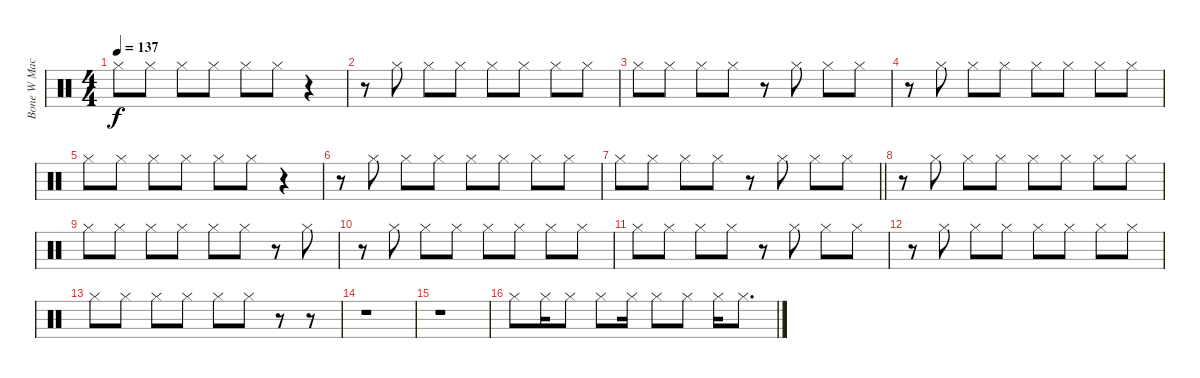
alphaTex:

\track ("Bone W Machine Cimbals" "Bone W Mac") {instrument percussion}
\staff {score}
\articulation defaults
\ts (4 4)
\tempo 137
\clef neutral
\ks c "Hi-Hat (closed)".8{dy f} "Hi-Hat (closed)".8 "Hi-Hat (closed)".8 "Hi-Hat (closed)".8 "Hi-Hat (closed)".8 "Hi-Hat (closed)".8
r.4 |
r.8 "Hi-Hat (closed)".8 "Hi-Hat (closed)".8 "Hi-Hat (closed)".8 "Hi-Hat (closed)".8 "Hi-Hat (closed)".8 "Hi-Hat (closed)".8 "Hi-Hat (closed)".8 |
"Hi-Hat (closed)".8 "Hi-Hat (closed)".8 "Hi-Hat (closed)".8 "Hi-Hat (closed)".8 r.8 "Hi-Hat (closed)".8 "Hi-Hat (closed)".8 "Hi-Hat (closed)".8 |
r.8 "Hi-Hat (closed)".8 "Hi-Hat (closed)".8 "Hi-Hat (closed)".8 "Hi-Hat (closed)".8 "Hi-Hat (closed)".8 "Hi-Hat (closed)".8 "Hi-Hat (closed)".8 |
"Hi-Hat (closed)".8 "Hi-Hat (closed)".8 "Hi-Hat (closed)".8 "Hi-Hat (closed)".8 "Hi-Hat (closed)".8 "Hi-Hat (closed)".8 r.4 |
r.8 "Hi-Hat (closed)".8 "Hi-Hat (closed)".8 "Hi-Hat (closed)".8 "Hi-Hat (closed)".8 "Hi-Hat (closed)".8 "Hi-Hat (closed)".8 "Hi-Hat (closed)".8 |
\barLineRight lightlight "Hi-Hat (closed)".8 "Hi-Hat (closed)".8 "Hi-Hat (closed)".8 "Hi-Hat (closed)".8
r.8 "Hi-Hat (closed)".8 "Hi-Hat (closed)".8 "Hi-Hat (closed)".8 |
r.8 "Hi-Hat (closed)".8 "Hi-Hat (closed)".8 "Hi-Hat (closed)".8 "Hi-Hat (closed)".8 "Hi-Hat (closed)".8 "Hi-Hat (closed)".8 "Hi-Hat (closed)".8 |
"Hi-Hat (closed)".8 "Hi-Hat (closed)".8 "Hi-Hat (closed)".8 "Hi-Hat (closed)".8 "Hi-Hat (closed)".8 "Hi-Hat (closed)".8 r.8 "Hi-Hat (closed)".8 |
r.8 "Hi-Hat (closed)".8 "Hi-Hat (closed)".8 "Hi-Hat (closed)".8 "Hi-Hat (closed)".8 "Hi-Hat (closed)".8 "Hi-Hat (closed)".8 "Hi-Hat (closed)".8 |
"Hi-Hat (closed)".8 "Hi-Hat (closed)".8 "Hi-Hat (closed)".8 "Hi-Hat (closed)".8 r.8 "Hi-Hat (closed)".8 "Hi-Hat (closed)".8 "Hi-Hat (closed)".8 |
r.8 "Hi-Hat (closed)".8 "Hi-Hat (closed)".8 "Hi-Hat (closed)".8 "Hi-Hat (closed)".8 "Hi-Hat (closed)".8 "Hi-Hat (closed)".8 "Hi-Hat (closed)".8 |
"Hi-Hat (closed)".8 "Hi-Hat (closed)".8 "Hi-Hat (closed)".8 "Hi-Hat (closed)".8 "Hi-Hat (closed)".8 "Hi-Hat (closed)".8 r.8 r.8 |
r.1 |
r.1 |
"Hi-Hat (closed)".8 "Hi-Hat (closed)".16 "Hi-Hat (closed)".8 "Hi-Hat (closed)".8 "Hi-Hat (closed)".16 "Hi-Hat (closed)".8 "Hi-Hat (closed)".8 "Hi-Hat (closed)".16 "Hi-Hat (closed)".8{d}
